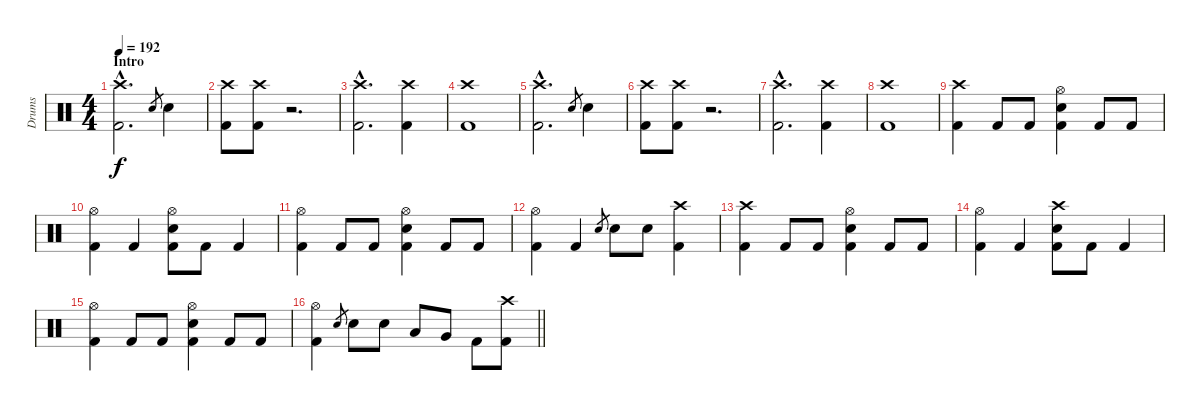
\track ("Drums" "Drums") {instrument percussion}
\staff {score}
\articulation defaults
\ts (4 4)
\section ("" "Intro")
\tempo 192
\clef neutral
\ks c
("Crash high (hit)"{hac} "Kick (hit) 2"{hac}).2{d dy f} "Snare (hit) 2".8{gr} "Snare (hit) 2".4 |
("Crash high (hit)" "Kick (hit) 2").8 ("Crash high (hit)" "Kick (hit) 2").8 r.2{d} |
("Crash high (hit)"{hac} "Kick (hit) 2"{hac}).2{d} ("Crash high (hit)" "Kick (hit) 2").4 |
("Crash high (hit)" "Kick (hit) 2").1 |
("Crash high (hit)"{hac} "Kick (hit) 2"{hac}).2{d} "Snare (hit) 2".8{gr} "Snare (hit) 2".4 |
("Crash high (hit)" "Kick (hit) 2").8 ("Crash high (hit)" "Kick (hit) 2").8 r.2{d} |
("Crash high (hit)"{hac} "Kick (hit) 2"{hac}).2{d} ("Crash high (hit)" "Kick (hit) 2").4 |
("Crash high (hit)" "Kick (hit) 2").1 |
("Crash high (hit)" "Kick (hit) 2").4 "Kick (hit) 2".8 "Kick (hit) 2".8 ("Hi-Hat (open)" "Snare (hit) 2" "Kick (hit) 2").4 "Kick (hit) 2".8 "Kick (hit) 2".8 |
("Hi-Hat (open)" "Kick (hit) 2").4 "Kick (hit) 2".4 ("Hi-Hat (open)" "Snare (hit) 2" "Kick (hit) 2").8 "Kick (hit) 2".8 "Kick (hit) 2".4 |
("Hi-Hat (open)" "Kick (hit) 2").4 "Kick (hit) 2".8 "Kick (hit) 2".8 ("Hi-Hat (open)" "Snare (hit) 2" "Kick (hit) 2").4 "Kick (hit) 2".8 "Kick (hit) 2".8 |
("Hi-Hat (open)" "Kick (hit) 2").4 "Kick (hit) 2".4 "Snare (hit) 2".8{gr} "Snare (hit) 2".8 "Snare (hit) 2".8 ("Crash high (hit)" "Kick (hit) 2").4 |
("Crash high (hit)" "Kick (hit) 2").4 "Kick (hit) 2".8 "Kick (hit) 2".8 ("Hi-Hat (open)" "Snare (hit) 2" "Kick (hit) 2").4 "Kick (hit) 2".8 "Kick (hit) 2".8 |
("Hi-Hat (open)" "Kick (hit) 2").4 "Kick (hit) 2".4 ("Crash high (hit)" "Snare (hit) 2" "Kick (hit) 2").8 "Kick (hit) 2".8 "Kick (hit) 2".4 |
("Hi-Hat (open)" "Kick (hit) 2").4 "Kick (hit) 2".8 "Kick (hit) 2".8 ("Hi-Hat (open)" "Snare (hit) 2" "Kick (hit) 2").4 "Kick (hit) 2".8 "Kick (hit) 2".8 |
\barLineRight lightlight
("Hi-Hat (open)" "Kick (hit) 2").4 "Snare (hit) 2".8{gr} "Snare (hit) 2".8 "Snare (hit) 2".8 "Low Tom (hit)".8 "Very Low Tom (hit)".8 "Kick (hit) 2".8 ("Crash high (hit)" "Kick (hit) 2").8
